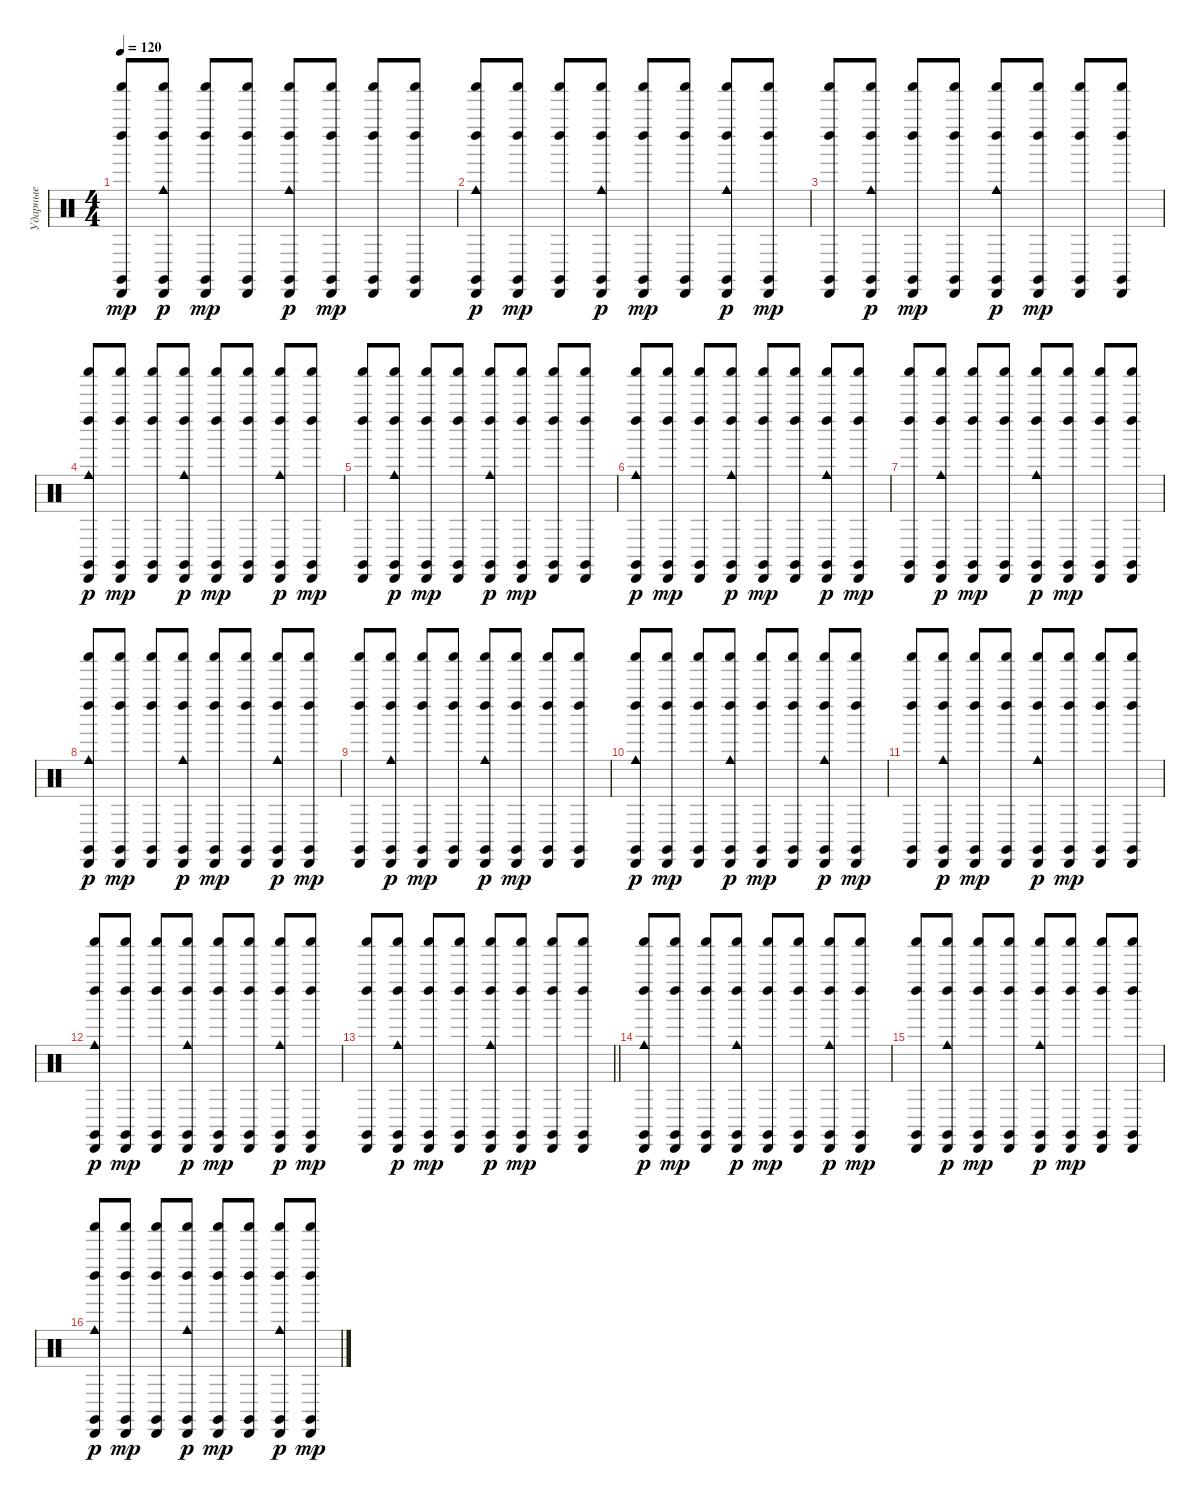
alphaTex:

\track ("Ударные" "Ударные") {instrument percussion}
\staff {score}
\articulation defaults
\ts (4 4)
\tempo 120
\clef neutral
\ks c
("Claves (hit)" "Shaker (hit)" "Cabasa (hit)" "Left Maraca (hit)").8{dy mp} ("Claves (hit)" "Shaker (hit)" "Cabasa (hit)" "Left Maraca (hit)" "Cowbell medium (hit)").8{dy p} ("Claves (hit)" "Shaker (hit)" "Cabasa (hit)" "Left Maraca (hit)").8{dy mp} ("Claves (hit)" "Shaker (hit)" "Cabasa (hit)" "Left Maraca (hit)").8 ("Claves (hit)" "Shaker (hit)" "Cabasa (hit)" "Left Maraca (hit)" "Cowbell medium (hit)").8{dy p} ("Claves (hit)" "Shaker (hit)" "Cabasa (hit)" "Left Maraca (hit)").8{dy mp} ("Claves (hit)" "Shaker (hit)" "Cabasa (hit)" "Left Maraca (hit)").8 ("Claves (hit)" "Shaker (hit)" "Cabasa (hit)" "Left Maraca (hit)").8 |
("Claves (hit)" "Shaker (hit)" "Cabasa (hit)" "Left Maraca (hit)" "Cowbell medium (hit)").8{dy p} ("Claves (hit)" "Shaker (hit)" "Cabasa (hit)" "Left Maraca (hit)").8{dy mp} ("Claves (hit)" "Shaker (hit)" "Cabasa (hit)" "Left Maraca (hit)").8 ("Claves (hit)" "Shaker (hit)" "Cabasa (hit)" "Left Maraca (hit)" "Cowbell medium (hit)").8{dy p} ("Claves (hit)" "Shaker (hit)" "Cabasa (hit)" "Left Maraca (hit)").8{dy mp} ("Claves (hit)" "Shaker (hit)" "Cabasa (hit)" "Left Maraca (hit)").8 ("Claves (hit)" "Shaker (hit)" "Cabasa (hit)" "Left Maraca (hit)" "Cowbell medium (hit)").8{dy p} ("Claves (hit)" "Shaker (hit)" "Cabasa (hit)" "Left Maraca (hit)").8{dy mp} |
("Claves (hit)" "Shaker (hit)" "Cabasa (hit)" "Left Maraca (hit)").8 ("Claves (hit)" "Shaker (hit)" "Cabasa (hit)" "Left Maraca (hit)" "Cowbell medium (hit)").8{dy p} ("Claves (hit)" "Shaker (hit)" "Cabasa (hit)" "Left Maraca (hit)").8{dy mp} ("Claves (hit)" "Shaker (hit)" "Cabasa (hit)" "Left Maraca (hit)").8 ("Claves (hit)" "Shaker (hit)" "Cabasa (hit)" "Left Maraca (hit)" "Cowbell medium (hit)").8{dy p} ("Claves (hit)" "Shaker (hit)" "Cabasa (hit)" "Left Maraca (hit)").8{dy mp} ("Claves (hit)" "Shaker (hit)" "Cabasa (hit)" "Left Maraca (hit)").8 ("Claves (hit)" "Shaker (hit)" "Cabasa (hit)" "Left Maraca (hit)").8 |
("Claves (hit)" "Shaker (hit)" "Cabasa (hit)" "Left Maraca (hit)" "Cowbell medium (hit)").8{dy p} ("Claves (hit)" "Shaker (hit)" "Cabasa (hit)" "Left Maraca (hit)").8{dy mp} ("Claves (hit)" "Shaker (hit)" "Cabasa (hit)" "Left Maraca (hit)").8 ("Claves (hit)" "Shaker (hit)" "Cabasa (hit)" "Left Maraca (hit)" "Cowbell medium (hit)").8{dy p} ("Claves (hit)" "Shaker (hit)" "Cabasa (hit)" "Left Maraca (hit)").8{dy mp} ("Claves (hit)" "Shaker (hit)" "Cabasa (hit)" "Left Maraca (hit)").8 ("Claves (hit)" "Shaker (hit)" "Cabasa (hit)" "Left Maraca (hit)" "Cowbell medium (hit)").8{dy p} ("Claves (hit)" "Shaker (hit)" "Cabasa (hit)" "Left Maraca (hit)").8{dy mp} |
("Claves (hit)" "Shaker (hit)" "Cabasa (hit)" "Left Maraca (hit)").8 ("Claves (hit)" "Shaker (hit)" "Cabasa (hit)" "Left Maraca (hit)" "Cowbell medium (hit)").8{dy p} ("Claves (hit)" "Shaker (hit)" "Cabasa (hit)" "Left Maraca (hit)").8{dy mp} ("Claves (hit)" "Shaker (hit)" "Cabasa (hit)" "Left Maraca (hit)").8 ("Claves (hit)" "Shaker (hit)" "Cabasa (hit)" "Left Maraca (hit)" "Cowbell medium (hit)").8{dy p} ("Claves (hit)" "Shaker (hit)" "Cabasa (hit)" "Left Maraca (hit)").8{dy mp} ("Claves (hit)" "Shaker (hit)" "Cabasa (hit)" "Left Maraca (hit)").8 ("Claves (hit)" "Shaker (hit)" "Cabasa (hit)" "Left Maraca (hit)").8 |
("Claves (hit)" "Shaker (hit)" "Cabasa (hit)" "Left Maraca (hit)" "Cowbell medium (hit)").8{dy p} ("Claves (hit)" "Shaker (hit)" "Cabasa (hit)" "Left Maraca (hit)").8{dy mp} ("Claves (hit)" "Shaker (hit)" "Cabasa (hit)" "Left Maraca (hit)").8 ("Claves (hit)" "Shaker (hit)" "Cabasa (hit)" "Left Maraca (hit)" "Cowbell medium (hit)").8{dy p} ("Claves (hit)" "Shaker (hit)" "Cabasa (hit)" "Left Maraca (hit)").8{dy mp} ("Claves (hit)" "Shaker (hit)" "Cabasa (hit)" "Left Maraca (hit)").8 ("Claves (hit)" "Shaker (hit)" "Cabasa (hit)" "Left Maraca (hit)" "Cowbell medium (hit)").8{dy p} ("Claves (hit)" "Shaker (hit)" "Cabasa (hit)" "Left Maraca (hit)").8{dy mp} |
("Claves (hit)" "Shaker (hit)" "Cabasa (hit)" "Left Maraca (hit)").8 ("Claves (hit)" "Shaker (hit)" "Cabasa (hit)" "Left Maraca (hit)" "Cowbell medium (hit)").8{dy p} ("Claves (hit)" "Shaker (hit)" "Cabasa (hit)" "Left Maraca (hit)").8{dy mp} ("Claves (hit)" "Shaker (hit)" "Cabasa (hit)" "Left Maraca (hit)").8 ("Claves (hit)" "Shaker (hit)" "Cabasa (hit)" "Left Maraca (hit)" "Cowbell medium (hit)").8{dy p} ("Claves (hit)" "Shaker (hit)" "Cabasa (hit)" "Left Maraca (hit)").8{dy mp} ("Claves (hit)" "Shaker (hit)" "Cabasa (hit)" "Left Maraca (hit)").8 ("Claves (hit)" "Shaker (hit)" "Cabasa (hit)" "Left Maraca (hit)").8 |
("Claves (hit)" "Shaker (hit)" "Cabasa (hit)" "Left Maraca (hit)" "Cowbell medium (hit)").8{dy p} ("Claves (hit)" "Shaker (hit)" "Cabasa (hit)" "Left Maraca (hit)").8{dy mp} ("Claves (hit)" "Shaker (hit)" "Cabasa (hit)" "Left Maraca (hit)").8 ("Claves (hit)" "Shaker (hit)" "Cabasa (hit)" "Left Maraca (hit)" "Cowbell medium (hit)").8{dy p} ("Claves (hit)" "Shaker (hit)" "Cabasa (hit)" "Left Maraca (hit)").8{dy mp} ("Claves (hit)" "Shaker (hit)" "Cabasa (hit)" "Left Maraca (hit)").8 ("Claves (hit)" "Shaker (hit)" "Cabasa (hit)" "Left Maraca (hit)" "Cowbell medium (hit)").8{dy p} ("Claves (hit)" "Shaker (hit)" "Cabasa (hit)" "Left Maraca (hit)").8{dy mp} |
("Claves (hit)" "Shaker (hit)" "Cabasa (hit)" "Left Maraca (hit)").8 ("Claves (hit)" "Shaker (hit)" "Cabasa (hit)" "Left Maraca (hit)" "Cowbell medium (hit)").8{dy p} ("Claves (hit)" "Shaker (hit)" "Cabasa (hit)" "Left Maraca (hit)").8{dy mp} ("Claves (hit)" "Shaker (hit)" "Cabasa (hit)" "Left Maraca (hit)").8 ("Claves (hit)" "Shaker (hit)" "Cabasa (hit)" "Left Maraca (hit)" "Cowbell medium (hit)").8{dy p} ("Claves (hit)" "Shaker (hit)" "Cabasa (hit)" "Left Maraca (hit)").8{dy mp} ("Claves (hit)" "Shaker (hit)" "Cabasa (hit)" "Left Maraca (hit)").8 ("Claves (hit)" "Shaker (hit)" "Cabasa (hit)" "Left Maraca (hit)").8 |
("Claves (hit)" "Shaker (hit)" "Cabasa (hit)" "Left Maraca (hit)" "Cowbell medium (hit)").8{dy p} ("Claves (hit)" "Shaker (hit)" "Cabasa (hit)" "Left Maraca (hit)").8{dy mp} ("Claves (hit)" "Shaker (hit)" "Cabasa (hit)" "Left Maraca (hit)").8 ("Claves (hit)" "Shaker (hit)" "Cabasa (hit)" "Left Maraca (hit)" "Cowbell medium (hit)").8{dy p} ("Claves (hit)" "Shaker (hit)" "Cabasa (hit)" "Left Maraca (hit)").8{dy mp} ("Claves (hit)" "Shaker (hit)" "Cabasa (hit)" "Left Maraca (hit)").8 ("Claves (hit)" "Shaker (hit)" "Cabasa (hit)" "Left Maraca (hit)" "Cowbell medium (hit)").8{dy p} ("Claves (hit)" "Shaker (hit)" "Cabasa (hit)" "Left Maraca (hit)").8{dy mp} |
("Claves (hit)" "Shaker (hit)" "Cabasa (hit)" "Left Maraca (hit)").8 ("Claves (hit)" "Shaker (hit)" "Cabasa (hit)" "Left Maraca (hit)" "Cowbell medium (hit)").8{dy p} ("Claves (hit)" "Shaker (hit)" "Cabasa (hit)" "Left Maraca (hit)").8{dy mp} ("Claves (hit)" "Shaker (hit)" "Cabasa (hit)" "Left Maraca (hit)").8 ("Claves (hit)" "Shaker (hit)" "Cabasa (hit)" "Left Maraca (hit)" "Cowbell medium (hit)").8{dy p} ("Claves (hit)" "Shaker (hit)" "Cabasa (hit)" "Left Maraca (hit)").8{dy mp} ("Claves (hit)" "Shaker (hit)" "Cabasa (hit)" "Left Maraca (hit)").8 ("Claves (hit)" "Shaker (hit)" "Cabasa (hit)" "Left Maraca (hit)").8 |
("Claves (hit)" "Shaker (hit)" "Cabasa (hit)" "Left Maraca (hit)" "Cowbell medium (hit)").8{dy p} ("Claves (hit)" "Shaker (hit)" "Cabasa (hit)" "Left Maraca (hit)").8{dy mp} ("Claves (hit)" "Shaker (hit)" "Cabasa (hit)" "Left Maraca (hit)").8 ("Claves (hit)" "Shaker (hit)" "Cabasa (hit)" "Left Maraca (hit)" "Cowbell medium (hit)").8{dy p} ("Claves (hit)" "Shaker (hit)" "Cabasa (hit)" "Left Maraca (hit)").8{dy mp} ("Claves (hit)" "Shaker (hit)" "Cabasa (hit)" "Left Maraca (hit)").8 ("Claves (hit)" "Shaker (hit)" "Cabasa (hit)" "Left Maraca (hit)" "Cowbell medium (hit)").8{dy p} ("Claves (hit)" "Shaker (hit)" "Cabasa (hit)" "Left Maraca (hit)").8{dy mp} |
\barLineRight lightlight
("Claves (hit)" "Shaker (hit)" "Cabasa (hit)" "Left Maraca (hit)").8 ("Claves (hit)" "Shaker (hit)" "Cabasa (hit)" "Left Maraca (hit)" "Cowbell medium (hit)").8{dy p} ("Claves (hit)" "Shaker (hit)" "Cabasa (hit)" "Left Maraca (hit)").8{dy mp} ("Claves (hit)" "Shaker (hit)" "Cabasa (hit)" "Left Maraca (hit)").8 ("Claves (hit)" "Shaker (hit)" "Cabasa (hit)" "Left Maraca (hit)" "Cowbell medium (hit)").8{dy p} ("Claves (hit)" "Shaker (hit)" "Cabasa (hit)" "Left Maraca (hit)").8{dy mp} ("Claves (hit)" "Shaker (hit)" "Cabasa (hit)" "Left Maraca (hit)").8 ("Claves (hit)" "Shaker (hit)" "Cabasa (hit)" "Left Maraca (hit)").8 |
("Claves (hit)" "Shaker (hit)" "Cabasa (hit)" "Left Maraca (hit)" "Cowbell medium (hit)").8{dy p} ("Claves (hit)" "Shaker (hit)" "Cabasa (hit)" "Left Maraca (hit)").8{dy mp} ("Claves (hit)" "Shaker (hit)" "Cabasa (hit)" "Left Maraca (hit)").8 ("Claves (hit)" "Shaker (hit)" "Cabasa (hit)" "Left Maraca (hit)" "Cowbell medium (hit)").8{dy p} ("Claves (hit)" "Shaker (hit)" "Cabasa (hit)" "Left Maraca (hit)").8{dy mp} ("Claves (hit)" "Shaker (hit)" "Cabasa (hit)" "Left Maraca (hit)").8 ("Claves (hit)" "Shaker (hit)" "Cabasa (hit)" "Left Maraca (hit)" "Cowbell medium (hit)").8{dy p} ("Claves (hit)" "Shaker (hit)" "Cabasa (hit)" "Left Maraca (hit)").8{dy mp} |
("Claves (hit)" "Shaker (hit)" "Cabasa (hit)" "Left Maraca (hit)").8 ("Claves (hit)" "Shaker (hit)" "Cabasa (hit)" "Left Maraca (hit)" "Cowbell medium (hit)").8{dy p} ("Claves (hit)" "Shaker (hit)" "Cabasa (hit)" "Left Maraca (hit)").8{dy mp} ("Claves (hit)" "Shaker (hit)" "Cabasa (hit)" "Left Maraca (hit)").8 ("Claves (hit)" "Shaker (hit)" "Cabasa (hit)" "Left Maraca (hit)" "Cowbell medium (hit)").8{dy p} ("Claves (hit)" "Shaker (hit)" "Cabasa (hit)" "Left Maraca (hit)").8{dy mp} ("Claves (hit)" "Shaker (hit)" "Cabasa (hit)" "Left Maraca (hit)").8 ("Claves (hit)" "Shaker (hit)" "Cabasa (hit)" "Left Maraca (hit)").8 |
("Claves (hit)" "Shaker (hit)" "Cabasa (hit)" "Left Maraca (hit)" "Cowbell medium (hit)").8{dy p} ("Claves (hit)" "Shaker (hit)" "Cabasa (hit)" "Left Maraca (hit)").8{dy mp} ("Claves (hit)" "Shaker (hit)" "Cabasa (hit)" "Left Maraca (hit)").8 ("Claves (hit)" "Shaker (hit)" "Cabasa (hit)" "Left Maraca (hit)" "Cowbell medium (hit)").8{dy p} ("Claves (hit)" "Shaker (hit)" "Cabasa (hit)" "Left Maraca (hit)").8{dy mp} ("Claves (hit)" "Shaker (hit)" "Cabasa (hit)" "Left Maraca (hit)").8 ("Claves (hit)" "Shaker (hit)" "Cabasa (hit)" "Left Maraca (hit)" "Cowbell medium (hit)").8{dy p} ("Claves (hit)" "Shaker (hit)" "Cabasa (hit)" "Left Maraca (hit)").8{dy mp}
